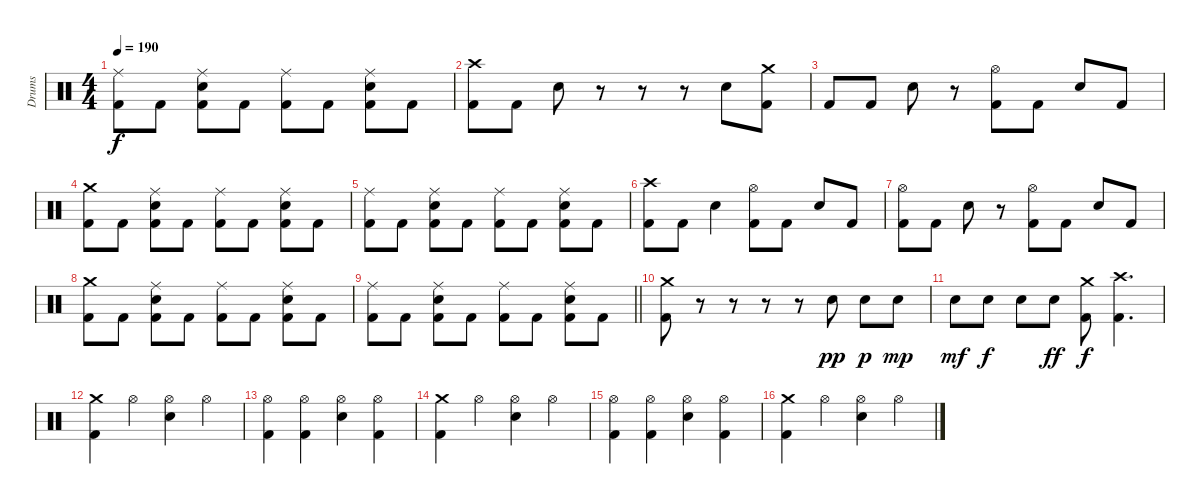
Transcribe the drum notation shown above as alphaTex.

\track ("Drums" "Drums") {instrument percussion}
\staff {score}
\articulation defaults
\ts (4 4)
\tempo 190
\clef neutral
\ks c
("Ride (middle)" "Kick (hit) 2").8{dy f} "Kick (hit) 2".8 ("Ride (middle)" "Electric Snare (hit)" "Kick (hit) 2").8 "Kick (hit) 2".8 ("Ride (middle)" "Kick (hit) 2").8 "Kick (hit) 2".8 ("Ride (middle)" "Electric Snare (hit)" "Kick (hit) 2").8 "Kick (hit) 2".8 |
("Crash high (hit)" "Kick (hit) 2").8 "Kick (hit) 2".8 "Electric Snare (hit)".8 r.8 r.8 r.8 "Electric Snare (hit)".8 ("Crash medium (hit)" "Kick (hit) 2").8 |
"Kick (hit) 2".8 "Kick (hit) 2".8 "Electric Snare (hit)".8 r.8 ("Hi-Hat (open)" "Kick (hit) 2").8 "Kick (hit) 2".8 "Electric Snare (hit)".8 "Kick (hit) 2".8 |
("Crash medium (hit)" "Kick (hit) 2").8 "Kick (hit) 2".8 ("Ride (middle)" "Electric Snare (hit)" "Kick (hit) 2").8 "Kick (hit) 2".8 ("Ride (middle)" "Kick (hit) 2").8 "Kick (hit) 2".8 ("Ride (middle)" "Electric Snare (hit)" "Kick (hit) 2").8 "Kick (hit) 2".8 |
("Ride (middle)" "Kick (hit) 2").8 "Kick (hit) 2".8 ("Ride (middle)" "Electric Snare (hit)" "Kick (hit) 2").8 "Kick (hit) 2".8 ("Ride (middle)" "Kick (hit) 2").8 "Kick (hit) 2".8 ("Ride (middle)" "Electric Snare (hit)" "Kick (hit) 2").8 "Kick (hit) 2".8 |
("Crash high (hit)" "Kick (hit) 2").8 "Kick (hit) 2".8 "Electric Snare (hit)".4 ("Hi-Hat (open)" "Kick (hit) 2").8 "Kick (hit) 2".8 "Electric Snare (hit)".8 "Kick (hit) 2".8 |
("Hi-Hat (open)" "Kick (hit) 2").8 "Kick (hit) 2".8 "Electric Snare (hit)".8 r.8 ("Hi-Hat (open)" "Kick (hit) 2").8 "Kick (hit) 2".8 "Electric Snare (hit)".8 "Kick (hit) 2".8 |
("Crash medium (hit)" "Kick (hit) 2").8 "Kick (hit) 2".8 ("Ride (middle)" "Electric Snare (hit)" "Kick (hit) 2").8 "Kick (hit) 2".8 ("Ride (middle)" "Kick (hit) 2").8 "Kick (hit) 2".8 ("Ride (middle)" "Electric Snare (hit)" "Kick (hit) 2").8 "Kick (hit) 2".8 |
\barLineRight lightlight
("Ride (middle)" "Kick (hit) 2").8 "Kick (hit) 2".8 ("Ride (middle)" "Electric Snare (hit)" "Kick (hit) 2").8 "Kick (hit) 2".8 ("Ride (middle)" "Kick (hit) 2").8 "Kick (hit) 2".8 ("Ride (middle)" "Electric Snare (hit)" "Kick (hit) 2").8 "Kick (hit) 2".8 |
("Crash medium (hit)" "Kick (hit) 2").8 r.8 r.8 r.8 r.8 "Electric Snare (hit)".8{dy pp} "Electric Snare (hit)".8{dy p} "Electric Snare (hit)".8{dy mp} |
"Electric Snare (hit)".8{dy mf} "Electric Snare (hit)".8{dy f} "Electric Snare (hit)".8 "Electric Snare (hit)".8{dy ff} ("Crash medium (hit)" "Kick (hit) 2").8{dy f} ("Crash high (hit)" "Kick (hit) 2").4{d} |
("Crash medium (hit)" "Kick (hit) 2").4 "Hi-Hat (open)".4 ("Hi-Hat (open)" "Electric Snare (hit)").4 "Hi-Hat (open)".4 |
("Hi-Hat (open)" "Kick (hit) 2").4 ("Hi-Hat (open)" "Kick (hit) 2").4 ("Hi-Hat (open)" "Electric Snare (hit)").4 ("Hi-Hat (open)" "Kick (hit) 2").4 |
("Crash medium (hit)" "Kick (hit) 2").4 "Hi-Hat (open)".4 ("Hi-Hat (open)" "Electric Snare (hit)").4 "Hi-Hat (open)".4 |
("Hi-Hat (open)" "Kick (hit) 2").4 ("Hi-Hat (open)" "Kick (hit) 2").4 ("Hi-Hat (open)" "Electric Snare (hit)").4 ("Hi-Hat (open)" "Kick (hit) 2").4 |
("Crash medium (hit)" "Kick (hit) 2").4 "Hi-Hat (open)".4 ("Hi-Hat (open)" "Electric Snare (hit)").4 "Hi-Hat (open)".4
